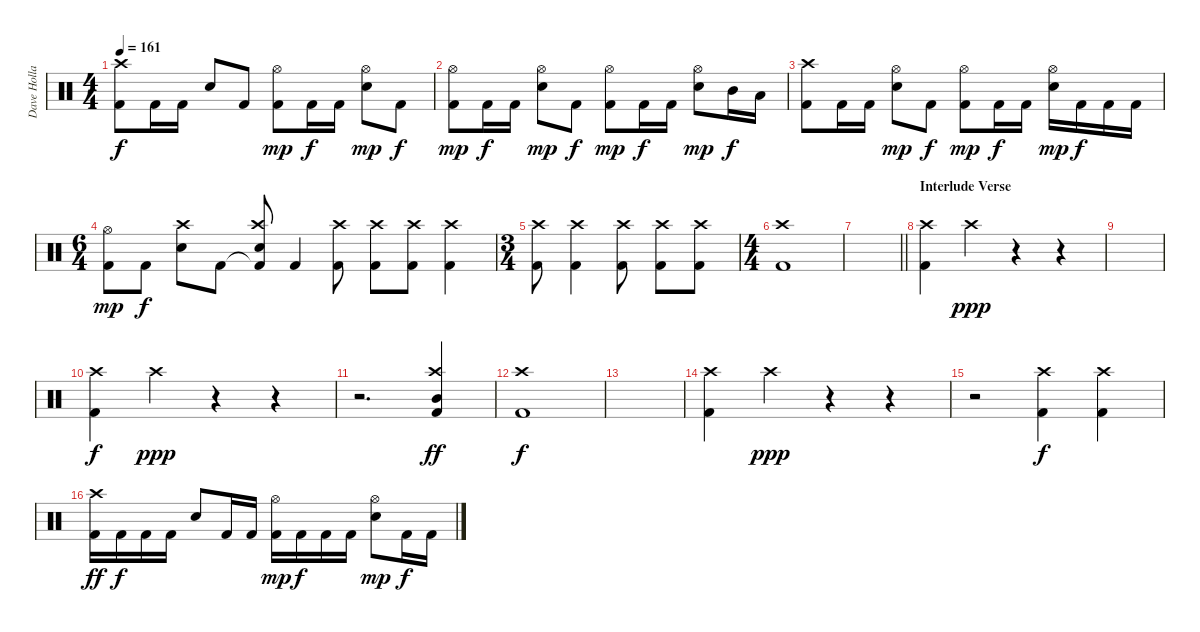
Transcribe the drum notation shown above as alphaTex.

\track ("Dave Holland" "Dave Holla") {instrument percussion}
\staff {score}
\articulation defaults
\ts (4 4)
\tempo 161
\clef neutral
\ks c
("Kick (hit) 2" "Crash high (hit)").8{dy f} "Kick (hit) 2".16 "Kick (hit) 2".16 "Snare (hit) 2".8 "Kick (hit) 2".8 ("Kick (hit) 2" "Hi-Hat (open)").8{dy mp} "Kick (hit) 2".16{dy f} "Kick (hit) 2".16 ("Hi-Hat (open)" "Snare (hit) 2").8{dy mp} "Kick (hit) 2".8{dy f} |
("Kick (hit) 2" "Hi-Hat (open)").8{dy mp} "Kick (hit) 2".16{dy f} "Kick (hit) 2".16 ("Hi-Hat (open)" "Snare (hit) 2").8{dy mp} "Kick (hit) 2".8{dy f} ("Kick (hit) 2" "Hi-Hat (open)").8{dy mp} "Kick (hit) 2".16{dy f} "Kick (hit) 2".16 ("Hi-Hat (open)" "Snare (hit) 2").8{dy mp} "Mid Tom (hit)".16{dy f} "Low Tom (hit)".16 |
("Kick (hit) 2" "Crash high (hit)").8 "Kick (hit) 2".16 "Kick (hit) 2".16 ("Hi-Hat (open)" "Snare (hit) 2").8{dy mp} "Kick (hit) 2".8{dy f} ("Kick (hit) 2" "Hi-Hat (open)").8{dy mp} "Kick (hit) 2".16{dy f} "Kick (hit) 2".16 ("Hi-Hat (open)" "Snare (hit) 2").16{dy mp} "Kick (hit) 2".16{dy f} "Kick (hit) 2".16 "Kick (hit) 2".16 |
\ts (6 4)
("Kick (hit) 2" "Hi-Hat (open)").8{dy mp} "Kick (hit) 2".8{dy f} ("Crash high (hit)" "Snare (hit) 2").8 "Kick (hit) 2".8 ("Kick (hit) 2"{t} "Crash high (hit)" "Snare (hit) 2").8 "Kick (hit) 2".4 ("Kick (hit) 2" "Crash high (hit)").8 ("Kick (hit) 2" "Crash high (hit)").8 ("Kick (hit) 2" "Crash high (hit)").8 ("Kick (hit) 2" "Crash high (hit)").4 |
\ts (3 4)
("Kick (hit) 2" "Crash high (hit)").8 ("Kick (hit) 2" "Crash high (hit)").4 ("Kick (hit) 2" "Crash high (hit)").8 ("Kick (hit) 2" "Crash high (hit)").8 ("Kick (hit) 2" "Crash high (hit)").8 |
\ts (4 4)
("Kick (hit) 2" "Crash high (hit)").1 |
\barLineRight lightlight
|
\section ("" "Interlude Verse")
("Kick (hit) 2" "Crash high (hit)").4 "Crash high (hit)".4{dy ppp} r.4 r.4 |
|
("Kick (hit) 2" "Crash high (hit)").4{dy f} "Crash high (hit)".4{dy ppp} r.4 r.4 |
r.2{d} ("Kick (hit) 2" "Crash high (hit)" "Mid Tom (hit)").4{dy ff} |
("Kick (hit) 2" "Crash high (hit)").1{dy f} |
|
("Kick (hit) 2" "Crash high (hit)").4 "Crash high (hit)".4{dy ppp} r.4 r.4 |
r.2 ("Kick (hit) 2" "Crash high (hit)").4{dy f} ("Kick (hit) 2" "Crash high (hit)").4 |
("Kick (hit) 2" "Crash high (hit)").16{dy ff} "Kick (hit) 2".16{dy f} "Kick (hit) 2".16 "Kick (hit) 2".16 "Snare (hit) 2".8 "Kick (hit) 2".16 "Kick (hit) 2".16 ("Kick (hit) 2" "Hi-Hat (open)").16{dy mp} "Kick (hit) 2".16{dy f} "Kick (hit) 2".16 "Kick (hit) 2".16 ("Hi-Hat (open)" "Snare (hit) 2").8{dy mp} "Kick (hit) 2".16{dy f} "Kick (hit) 2".16
